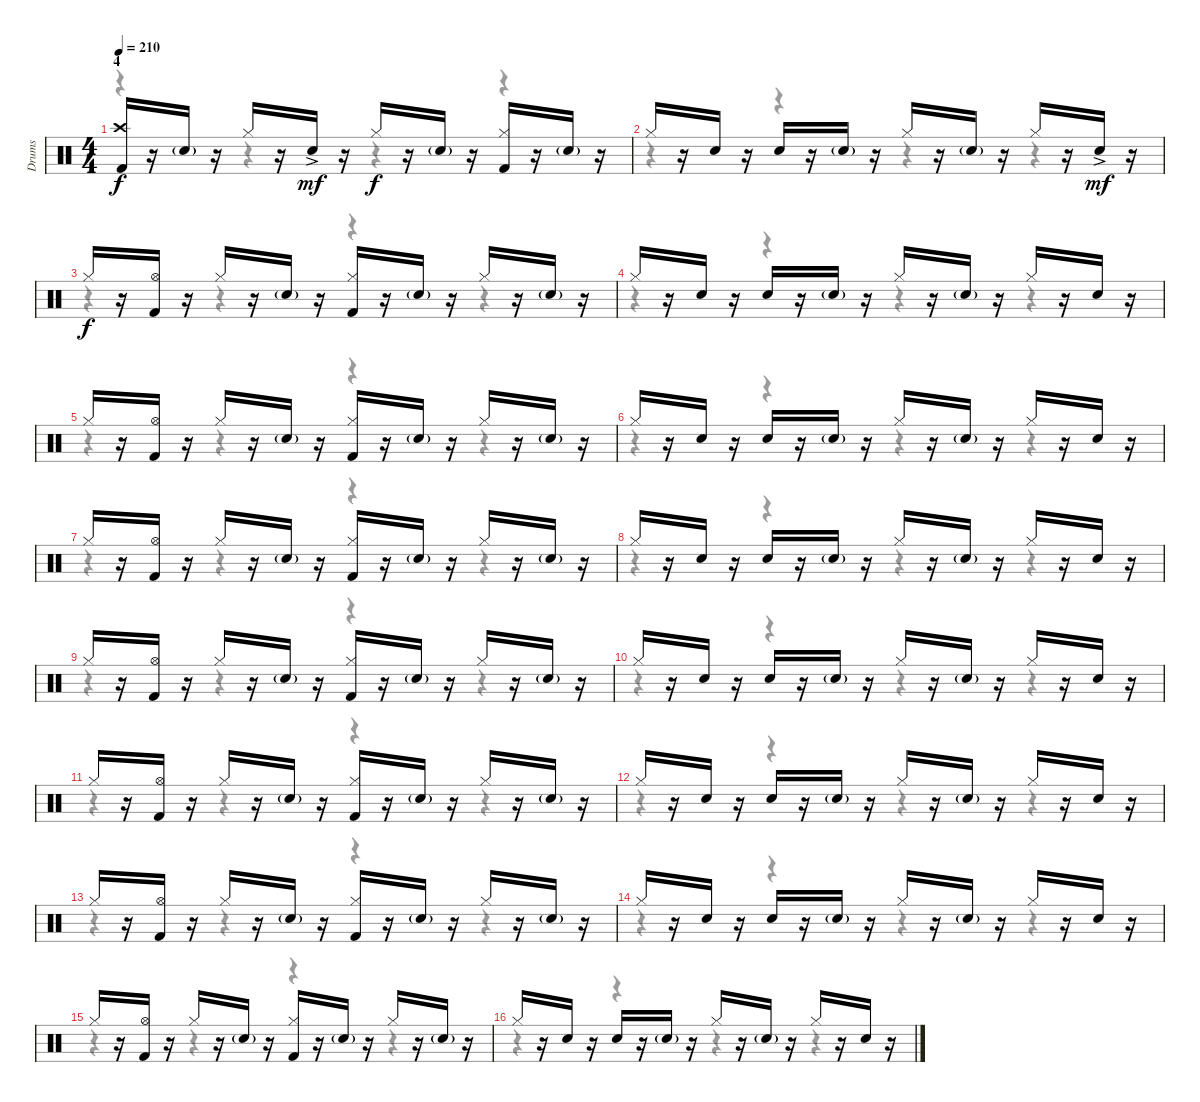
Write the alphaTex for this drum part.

\track ("Drums" "Drums") {instrument percussion}
\staff {score}
\articulation defaults
\voice
\ts (4 4)
\section ("" "4")
\tempo 210
\clef neutral
\ks c
("Kick (hit) 2" "Crash high (hit)").16{dy f} r.16 "Snare (hit) 2"{g}.16 r.16 "Hi-Hat (closed)".16 r.16 "Snare (hit) 2"{ac}.16{dy mf} r.16 "Hi-Hat (closed)".16{dy f} r.16 "Snare (hit) 2"{g}.16 r.16 ("Kick (hit) 2" "Hi-Hat (closed)").16 r.16 "Snare (hit) 2"{g}.16 r.16 |
"Hi-Hat (closed)".16 r.16 "Snare (hit) 2".16 r.16 "Snare (hit) 2".16 r.16 "Snare (hit) 2"{g}.16 r.16 "Hi-Hat (closed)".16 r.16 "Snare (hit) 2"{g}.16 r.16 "Hi-Hat (closed)".16 r.16 "Snare (hit) 2"{ac}.16{dy mf} r.16 |
"Hi-Hat (closed)".16{dy f} r.16 ("Kick (hit) 2" "Hi-Hat (open)").16 r.16 "Hi-Hat (closed)".16 r.16 "Snare (hit) 2"{g}.16 r.16 ("Kick (hit) 2" "Hi-Hat (closed)").16 r.16 "Snare (hit) 2"{g}.16 r.16 "Hi-Hat (closed)".16 r.16 "Snare (hit) 2"{g}.16 r.16 |
"Hi-Hat (closed)".16 r.16 "Snare (hit) 2".16 r.16 "Snare (hit) 2".16 r.16 "Snare (hit) 2"{g}.16 r.16 "Hi-Hat (closed)".16 r.16 "Snare (hit) 2"{g}.16 r.16 "Hi-Hat (closed)".16 r.16 "Snare (hit) 2".16 r.16 |
"Hi-Hat (closed)".16 r.16 ("Kick (hit) 2" "Hi-Hat (open)").16 r.16 "Hi-Hat (closed)".16 r.16 "Snare (hit) 2"{g}.16 r.16 ("Kick (hit) 2" "Hi-Hat (closed)").16 r.16 "Snare (hit) 2"{g}.16 r.16 "Hi-Hat (closed)".16 r.16 "Snare (hit) 2"{g}.16 r.16 |
"Hi-Hat (closed)".16 r.16 "Snare (hit) 2".16 r.16 "Snare (hit) 2".16 r.16 "Snare (hit) 2"{g}.16 r.16 "Hi-Hat (closed)".16 r.16 "Snare (hit) 2"{g}.16 r.16 "Hi-Hat (closed)".16 r.16 "Snare (hit) 2".16 r.16 |
"Hi-Hat (closed)".16 r.16 ("Kick (hit) 2" "Hi-Hat (open)").16 r.16 "Hi-Hat (closed)".16 r.16 "Snare (hit) 2"{g}.16 r.16 ("Kick (hit) 2" "Hi-Hat (closed)").16 r.16 "Snare (hit) 2"{g}.16 r.16 "Hi-Hat (closed)".16 r.16 "Snare (hit) 2"{g}.16 r.16 |
"Hi-Hat (closed)".16 r.16 "Snare (hit) 2".16 r.16 "Snare (hit) 2".16 r.16 "Snare (hit) 2"{g}.16 r.16 "Hi-Hat (closed)".16 r.16 "Snare (hit) 2"{g}.16 r.16 "Hi-Hat (closed)".16 r.16 "Snare (hit) 2".16 r.16 |
"Hi-Hat (closed)".16 r.16 ("Kick (hit) 2" "Hi-Hat (open)").16 r.16 "Hi-Hat (closed)".16 r.16 "Snare (hit) 2"{g}.16 r.16 ("Kick (hit) 2" "Hi-Hat (closed)").16 r.16 "Snare (hit) 2"{g}.16 r.16 "Hi-Hat (closed)".16 r.16 "Snare (hit) 2"{g}.16 r.16 |
"Hi-Hat (closed)".16 r.16 "Snare (hit) 2".16 r.16 "Snare (hit) 2".16 r.16 "Snare (hit) 2"{g}.16 r.16 "Hi-Hat (closed)".16 r.16 "Snare (hit) 2"{g}.16 r.16 "Hi-Hat (closed)".16 r.16 "Snare (hit) 2".16 r.16 |
"Hi-Hat (closed)".16 r.16 ("Kick (hit) 2" "Hi-Hat (open)").16 r.16 "Hi-Hat (closed)".16 r.16 "Snare (hit) 2"{g}.16 r.16 ("Kick (hit) 2" "Hi-Hat (closed)").16 r.16 "Snare (hit) 2"{g}.16 r.16 "Hi-Hat (closed)".16 r.16 "Snare (hit) 2"{g}.16 r.16 |
"Hi-Hat (closed)".16 r.16 "Snare (hit) 2".16 r.16 "Snare (hit) 2".16 r.16 "Snare (hit) 2"{g}.16 r.16 "Hi-Hat (closed)".16 r.16 "Snare (hit) 2"{g}.16 r.16 "Hi-Hat (closed)".16 r.16 "Snare (hit) 2".16 r.16 |
"Hi-Hat (closed)".16 r.16 ("Kick (hit) 2" "Hi-Hat (open)").16 r.16 "Hi-Hat (closed)".16 r.16 "Snare (hit) 2"{g}.16 r.16 ("Kick (hit) 2" "Hi-Hat (closed)").16 r.16 "Snare (hit) 2"{g}.16 r.16 "Hi-Hat (closed)".16 r.16 "Snare (hit) 2"{g}.16 r.16 |
"Hi-Hat (closed)".16 r.16 "Snare (hit) 2".16 r.16 "Snare (hit) 2".16 r.16 "Snare (hit) 2"{g}.16 r.16 "Hi-Hat (closed)".16 r.16 "Snare (hit) 2"{g}.16 r.16 "Hi-Hat (closed)".16 r.16 "Snare (hit) 2".16 r.16 |
"Hi-Hat (closed)".16 r.16 ("Kick (hit) 2" "Hi-Hat (open)").16 r.16 "Hi-Hat (closed)".16 r.16 "Snare (hit) 2"{g}.16 r.16 ("Kick (hit) 2" "Hi-Hat (closed)").16 r.16 "Snare (hit) 2"{g}.16 r.16 "Hi-Hat (closed)".16 r.16 "Snare (hit) 2"{g}.16 r.16 |
"Hi-Hat (closed)".16 r.16 "Snare (hit) 2".16 r.16 "Snare (hit) 2".16 r.16 "Snare (hit) 2"{g}.16 r.16 "Hi-Hat (closed)".16 r.16 "Snare (hit) 2"{g}.16 r.16 "Hi-Hat (closed)".16 r.16 "Snare (hit) 2".16 r.16
\voice
\clef neutral
\ottava regular
\simile none
\ks c
r.4{dy mf} r.4 r.4 r.4 |
r.4 r.4 r.4 r.4 |
r.4 r.4 r.4 r.4 |
r.4 r.4 r.4 r.4 |
r.4 r.4 r.4 r.4 |
r.4 r.4 r.4 r.4 |
r.4 r.4 r.4 r.4 |
r.4 r.4 r.4 r.4 |
r.4 r.4 r.4 r.4 |
r.4 r.4 r.4 r.4 |
r.4 r.4 r.4 r.4 |
r.4 r.4 r.4 r.4 |
r.4 r.4 r.4 r.4 |
r.4 r.4 r.4 r.4 |
r.4 r.4 r.4 r.4 |
r.4 r.4 r.4 r.4
